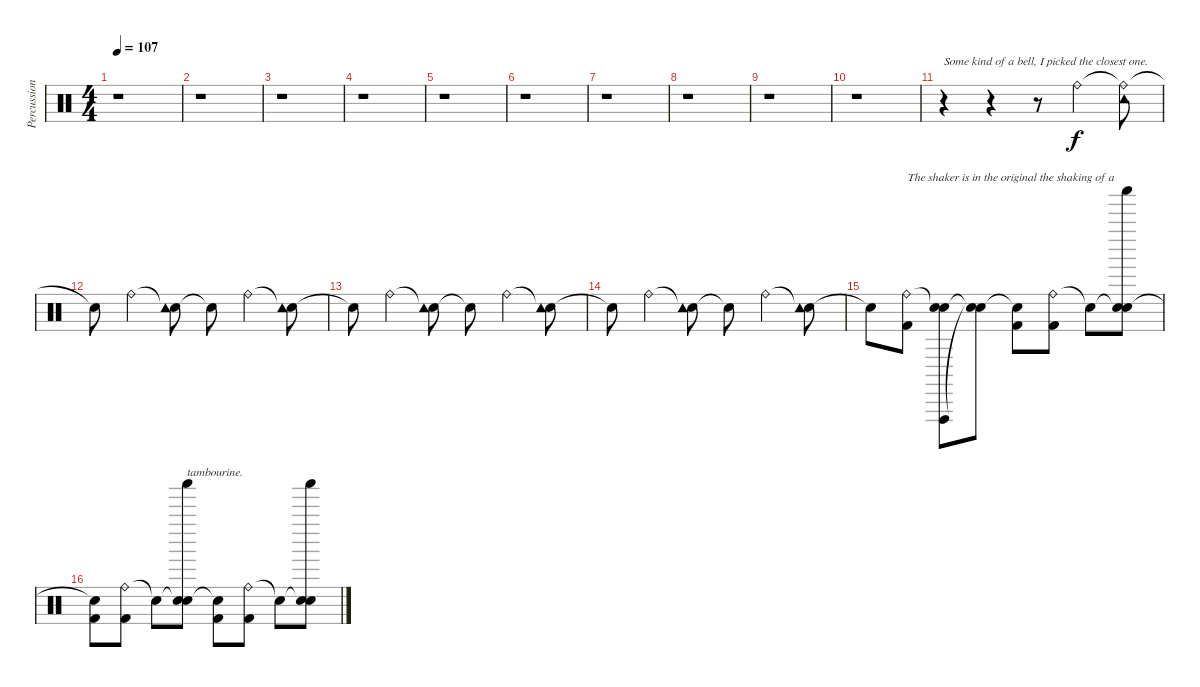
\track ("Percussion" "Percussion") {instrument percussion}
\staff {score}
\articulation defaults
\ts (4 4)
\tempo 107
\clef neutral
\ks c
r.1{dy f} |
r.1 |
r.1 |
r.1 |
r.1 |
r.1 |
r.1 |
r.1 |
r.1 |
r.1 |
r.4{txt "Some kind of a bell, I picked the closest one."} r.4 r.8 "Ride (bell)".4 ("Ride (bell)"{t} "Tambourine (hit)").8 |
"Snare (hit)"{t}.8 "Ride (bell)".4 ("Snare (hit)"{t} "Tambourine (hit)").8 "Snare (hit)"{t}.8 "Ride (bell)".4 ("Snare (hit)"{t} "Tambourine (hit)").8 |
"Snare (hit)"{t}.8 "Ride (bell)".4 ("Snare (hit)"{t} "Tambourine (hit)").8 "Snare (hit)"{t}.8 "Ride (bell)".4 ("Snare (hit)"{t} "Tambourine (hit)").8 |
"Snare (hit)"{t}.8 "Ride (bell)".4 ("Snare (hit)"{t} "Tambourine (hit)").8 "Snare (hit)"{t}.8 "Ride (bell)".4 ("Snare (hit)"{t} "Tambourine (hit)").8 |
"Snare (hit)"{t}.8 ("Ride (bell)" "Kick (hit) 2").8{txt "The shaker is in the original the shaking of a"} ("Snare (hit)"{t} "Vibraslap (hit)" "Electric Snare (hit)").8 ("Snare (hit)"{t} "Snare (hit)"{t}).8 ("Snare (hit)"{t} "Kick (hit) 2").8 ("Ride (bell)" "Kick (hit) 2").8 "Snare (hit)"{t}.8 ("Snare (hit)"{t} "Shaker (hit)" "Electric Snare (hit)").8 |
("Snare (hit)"{t} "Kick (hit) 2").8 ("Ride (bell)" "Kick (hit) 2").8 "Snare (hit)"{t}.8 ("Snare (hit)"{t} "Shaker (hit)" "Electric Snare (hit)").8{txt "tambourine."} ("Snare (hit)"{t} "Kick (hit) 2").8 ("Ride (bell)" "Kick (hit) 2").8 "Snare (hit)"{t}.8 ("Snare (hit)"{t} "Shaker (hit)" "Electric Snare (hit)").8
